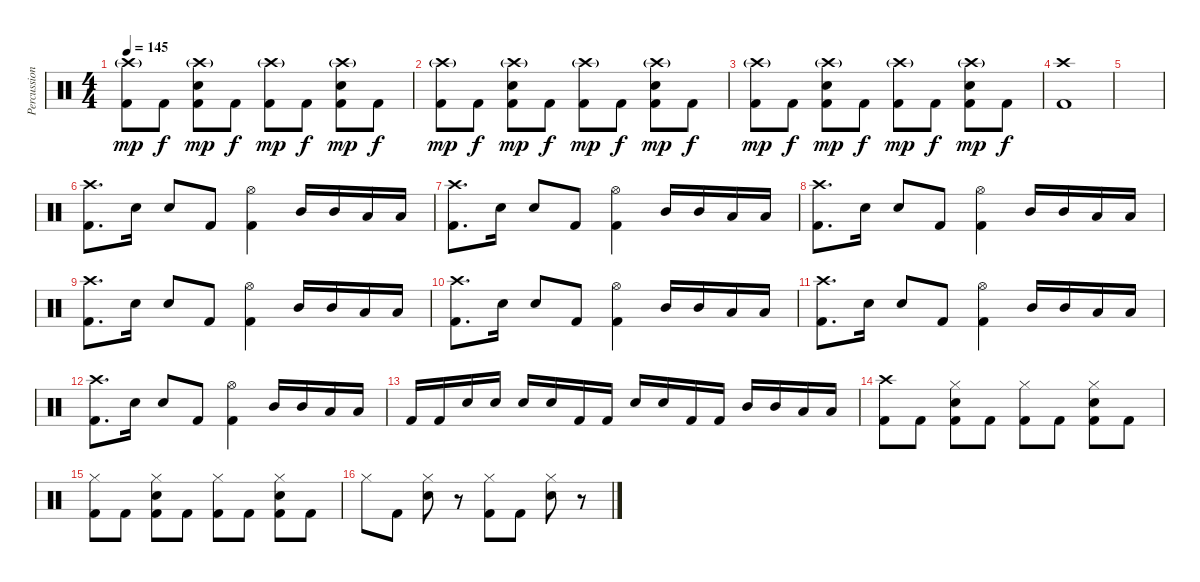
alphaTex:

\track ("Percussion" "Percussion") {instrument percussion}
\staff {score}
\articulation defaults
\ts (4 4)
\tempo 145
\clef neutral
\ks c
("Crash high (hit)"{g} "Kick (hit) 2").8{dy mp} "Kick (hit) 2".8{dy f} ("Crash high (hit)"{g} "Electric Snare (hit)" "Kick (hit) 2").8{dy mp} "Kick (hit) 2".8{dy f} ("Crash high (hit)"{g} "Kick (hit) 2").8{dy mp} "Kick (hit) 2".8{dy f} ("Crash high (hit)"{g} "Electric Snare (hit)" "Kick (hit) 2").8{dy mp} "Kick (hit) 2".8{dy f} |
("Crash high (hit)"{g} "Kick (hit) 2").8{dy mp} "Kick (hit) 2".8{dy f} ("Crash high (hit)"{g} "Electric Snare (hit)" "Kick (hit) 2").8{dy mp} "Kick (hit) 2".8{dy f} ("Crash high (hit)"{g} "Kick (hit) 2").8{dy mp} "Kick (hit) 2".8{dy f} ("Crash high (hit)"{g} "Electric Snare (hit)" "Kick (hit) 2").8{dy mp} "Kick (hit) 2".8{dy f} |
("Crash high (hit)"{g} "Kick (hit) 2").8{dy mp} "Kick (hit) 2".8{dy f} ("Crash high (hit)"{g} "Electric Snare (hit)" "Kick (hit) 2").8{dy mp} "Kick (hit) 2".8{dy f} ("Crash high (hit)"{g} "Kick (hit) 2").8{dy mp} "Kick (hit) 2".8{dy f} ("Crash high (hit)"{g} "Electric Snare (hit)" "Kick (hit) 2").8{dy mp} "Kick (hit) 2".8{dy f} |
("Crash high (hit)" "Kick (hit) 2").1 |
|
("Crash high (hit)" "Kick (hit) 2").8{d} "Snare (hit) 2".16 "Snare (hit) 2".8 "Kick (hit) 2".8 ("Hi-Hat (open)" "Kick (hit) 2").4 "Mid Tom (hit)".16 "Mid Tom (hit)".16 "Low Tom (hit)".16 "Low Tom (hit)".16 |
("Crash high (hit)" "Kick (hit) 2").8{d} "Snare (hit) 2".16 "Snare (hit) 2".8 "Kick (hit) 2".8 ("Hi-Hat (open)" "Kick (hit) 2").4 "Mid Tom (hit)".16 "Mid Tom (hit)".16 "Low Tom (hit)".16 "Low Tom (hit)".16 |
("Crash high (hit)" "Kick (hit) 2").8{d} "Snare (hit) 2".16 "Snare (hit) 2".8 "Kick (hit) 2".8 ("Hi-Hat (open)" "Kick (hit) 2").4 "Mid Tom (hit)".16 "Mid Tom (hit)".16 "Low Tom (hit)".16 "Low Tom (hit)".16 |
("Crash high (hit)" "Kick (hit) 2").8{d} "Snare (hit) 2".16 "Snare (hit) 2".8 "Kick (hit) 2".8 ("Hi-Hat (open)" "Kick (hit) 2").4 "Mid Tom (hit)".16 "Mid Tom (hit)".16 "Low Tom (hit)".16 "Low Tom (hit)".16 |
("Crash high (hit)" "Kick (hit) 2").8{d} "Snare (hit) 2".16 "Snare (hit) 2".8 "Kick (hit) 2".8 ("Hi-Hat (open)" "Kick (hit) 2").4 "Mid Tom (hit)".16 "Mid Tom (hit)".16 "Low Tom (hit)".16 "Low Tom (hit)".16 |
("Crash high (hit)" "Kick (hit) 2").8{d} "Snare (hit) 2".16 "Snare (hit) 2".8 "Kick (hit) 2".8 ("Hi-Hat (open)" "Kick (hit) 2").4 "Mid Tom (hit)".16 "Mid Tom (hit)".16 "Low Tom (hit)".16 "Low Tom (hit)".16 |
("Crash high (hit)" "Kick (hit) 2").8{d} "Snare (hit) 2".16 "Snare (hit) 2".8 "Kick (hit) 2".8 ("Hi-Hat (open)" "Kick (hit) 2").4 "Mid Tom (hit)".16 "Mid Tom (hit)".16 "Low Tom (hit)".16 "Low Tom (hit)".16 |
"Kick (hit) 2".16 "Kick (hit) 2".16 "Snare (hit) 2".16 "Snare (hit) 2".16 "Snare (hit) 2".16 "Snare (hit) 2".16 "Kick (hit) 2".16 "Kick (hit) 2".16 "Snare (hit) 2".16 "Snare (hit) 2".16 "Kick (hit) 2".16 "Kick (hit) 2".16 "Mid Tom (hit)".16 "Mid Tom (hit)".16 "Low Tom (hit)".16 "Low Tom (hit)".16 |
("Crash high (hit)" "Kick (hit) 2").8 "Kick (hit) 2".8 ("Hi-Hat (closed)" "Snare (hit) 2" "Kick (hit) 2").8 "Kick (hit) 2".8 ("Hi-Hat (closed)" "Kick (hit) 2").8 "Kick (hit) 2".8 ("Hi-Hat (closed)" "Snare (hit) 2" "Kick (hit) 2").8 "Kick (hit) 2".8 |
("Hi-Hat (closed)" "Kick (hit) 2").8 "Kick (hit) 2".8 ("Hi-Hat (closed)" "Snare (hit) 2" "Kick (hit) 2").8 "Kick (hit) 2".8 ("Hi-Hat (closed)" "Kick (hit) 2").8 "Kick (hit) 2".8 ("Hi-Hat (closed)" "Snare (hit) 2" "Kick (hit) 2").8 "Kick (hit) 2".8 |
"Hi-Hat (closed)".8 "Kick (hit) 2".8 ("Hi-Hat (closed)" "Snare (hit) 2").8 r.8 ("Hi-Hat (closed)" "Kick (hit) 2").8 "Kick (hit) 2".8 ("Hi-Hat (closed)" "Snare (hit) 2").8 r.8
